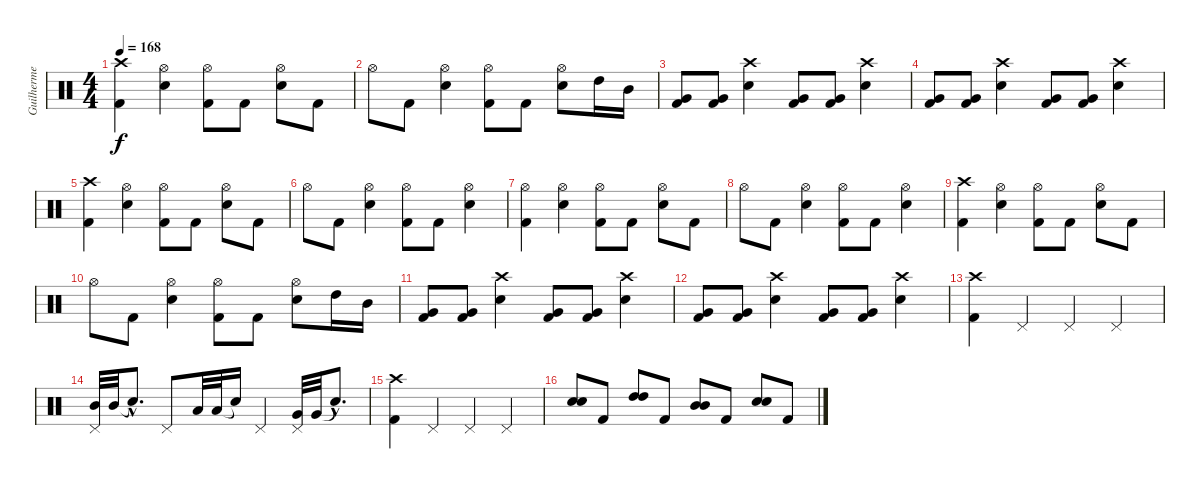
\track ("Guilherme" "Guilherme") {instrument percussion}
\staff {score}
\articulation defaults
\ts (4 4)
\tempo 168
\clef neutral
\ks c
("Crash high (hit)" "Kick (hit) 2").4{dy f} ("Hi-Hat (open)" "Snare (hit) 2").4 ("Hi-Hat (open)" "Kick (hit) 2").8 "Kick (hit) 2".8 ("Hi-Hat (open)" "Snare (hit) 2").8 "Kick (hit) 2".8 |
"Hi-Hat (open)".8 "Kick (hit) 2".8 ("Hi-Hat (open)" "Snare (hit) 2").4 ("Hi-Hat (open)" "Kick (hit) 2").8 "Kick (hit) 2".8 ("Hi-Hat (open)" "Snare (hit) 2").8 "High Tom (hit)".16 "Mid Tom (hit)".16 |
("Very Low Tom (hit)" "Kick (hit) 2").8 ("Very Low Tom (hit)" "Kick (hit) 2").8 ("Crash high (hit)" "Snare (hit) 2").4 ("Very Low Tom (hit)" "Kick (hit) 2").8 ("Very Low Tom (hit)" "Kick (hit) 2").8 ("Crash high (hit)" "Snare (hit) 2").4 |
("Very Low Tom (hit)" "Kick (hit) 2").8 ("Very Low Tom (hit)" "Kick (hit) 2").8 ("Crash high (hit)" "Snare (hit) 2").4 ("Very Low Tom (hit)" "Kick (hit) 2").8 ("Very Low Tom (hit)" "Kick (hit) 2").8 ("Crash high (hit)" "Snare (hit) 2").4 |
("Crash high (hit)" "Kick (hit) 2").4 ("Hi-Hat (open)" "Snare (hit) 2").4 ("Hi-Hat (open)" "Kick (hit) 2").8 "Kick (hit) 2".8 ("Hi-Hat (open)" "Snare (hit) 2").8 "Kick (hit) 2".8 |
"Hi-Hat (open)".8 "Kick (hit) 2".8 ("Hi-Hat (open)" "Snare (hit) 2").4 ("Hi-Hat (open)" "Kick (hit) 2").8 "Kick (hit) 2".8 ("Hi-Hat (open)" "Snare (hit) 2").4 |
("Hi-Hat (open)" "Kick (hit) 2").4 ("Hi-Hat (open)" "Snare (hit) 2").4 ("Hi-Hat (open)" "Kick (hit) 2").8 "Kick (hit) 2".8 ("Hi-Hat (open)" "Snare (hit) 2").8 "Kick (hit) 2".8 |
"Hi-Hat (open)".8 "Kick (hit) 2".8 ("Hi-Hat (open)" "Snare (hit) 2").4 ("Hi-Hat (open)" "Kick (hit) 2").8 "Kick (hit) 2".8 ("Hi-Hat (open)" "Snare (hit) 2").4 |
("Crash high (hit)" "Kick (hit) 2").4 ("Hi-Hat (open)" "Snare (hit) 2").4 ("Hi-Hat (open)" "Kick (hit) 2").8 "Kick (hit) 2".8 ("Hi-Hat (open)" "Snare (hit) 2").8 "Kick (hit) 2".8 |
"Hi-Hat (open)".8 "Kick (hit) 2".8 ("Hi-Hat (open)" "Snare (hit) 2").4 ("Hi-Hat (open)" "Kick (hit) 2").8 "Kick (hit) 2".8 ("Hi-Hat (open)" "Snare (hit) 2").8 "High Tom (hit)".16 "Mid Tom (hit)".16 |
("Very Low Tom (hit)" "Kick (hit) 2").8 ("Very Low Tom (hit)" "Kick (hit) 2").8 ("Crash high (hit)" "Snare (hit) 2").4 ("Very Low Tom (hit)" "Kick (hit) 2").8 ("Very Low Tom (hit)" "Kick (hit) 2").8 ("Crash high (hit)" "Snare (hit) 2").4 |
("Very Low Tom (hit)" "Kick (hit) 2").8 ("Very Low Tom (hit)" "Kick (hit) 2").8 ("Crash high (hit)" "Snare (hit) 2").4 ("Very Low Tom (hit)" "Kick (hit) 2").8 ("Very Low Tom (hit)" "Kick (hit) 2").8 ("Crash high (hit)" "Snare (hit) 2").4 |
("Crash high (hit)" "Kick (hit) 2").4 "Pedal Hi-Hat (hit)".4 "Pedal Hi-Hat (hit)".4 "Pedal Hi-Hat (hit)".4 |
("Pedal Hi-Hat (hit)" "Mid Tom (hit)").32 "Mid Tom (hit)".32 "Snare (hit)"{hac t}.8{d} "Pedal Hi-Hat (hit)".8 "Low Tom (hit)".32 "Low Tom (hit)".32 "Snare (hit)"{t}.16 "Pedal Hi-Hat (hit)".4 ("Pedal Hi-Hat (hit)" "Very Low Tom (hit)").32 "Very Low Tom (hit)".32 "Snare (hit)"{hac t}.8{d} |
("Crash high (hit)" "Kick (hit) 2").4 "Pedal Hi-Hat (hit)".4 "Pedal Hi-Hat (hit)".4 "Pedal Hi-Hat (hit)".4 |
("Snare (hit) 2" "Snare (hit) 2").8{bd 240} "Kick (hit) 2".8 ("High Tom (hit)" "High Tom (hit)").8{bd 240} "Kick (hit) 2".8 ("Mid Tom (hit)" "Mid Tom (hit)").8{bd 240} "Kick (hit) 2".8 ("Snare (hit) 2" "Snare (hit) 2").8{bd 240} "Kick (hit) 2".8
